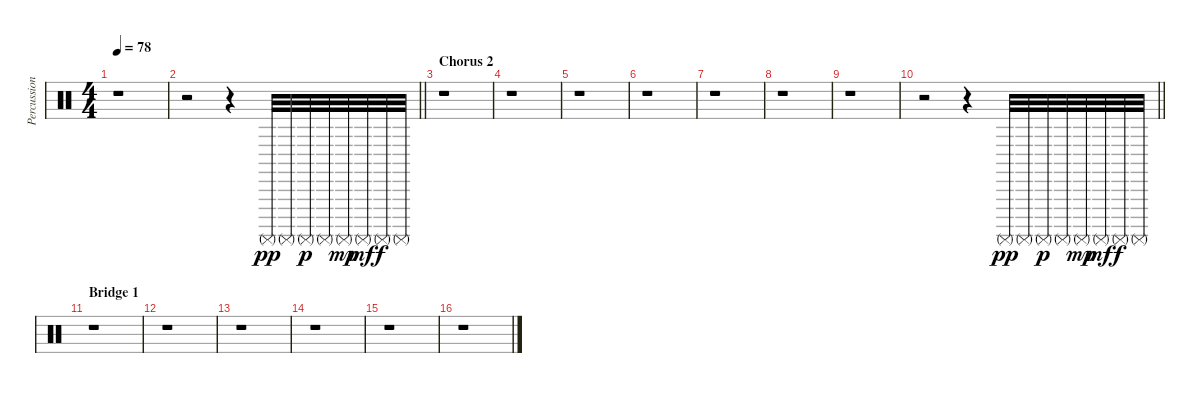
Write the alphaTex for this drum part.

\track ("Percussion" "Percussion") {instrument percussion}
\staff {score}
\articulation defaults
\ts (4 4)
\tempo 78
\clef neutral
\ks c
r.1{dy f} |
\barLineRight lightlight
r.2 r.4 "Surdo (mute)".32{dy pp} "Surdo (mute)".32 "Surdo (mute)".32{dy p} "Surdo (mute)".32 "Surdo (mute)".32{dy mp} "Surdo (mute)".32{dy mf} "Surdo (mute)".32{dy f} "Surdo (mute)".32 |
\section ("" "Chorus 2")
r.1 |
r.1 |
r.1 |
r.1 |
r.1 |
r.1 |
r.1 |
\barLineRight lightlight
r.2 r.4 "Surdo (mute)".32{dy pp} "Surdo (mute)".32 "Surdo (mute)".32{dy p} "Surdo (mute)".32 "Surdo (mute)".32{dy mp} "Surdo (mute)".32{dy mf} "Surdo (mute)".32{dy f} "Surdo (mute)".32 |
\section ("" "Bridge 1")
r.1 |
r.1 |
r.1 |
r.1 |
r.1 |
r.1
